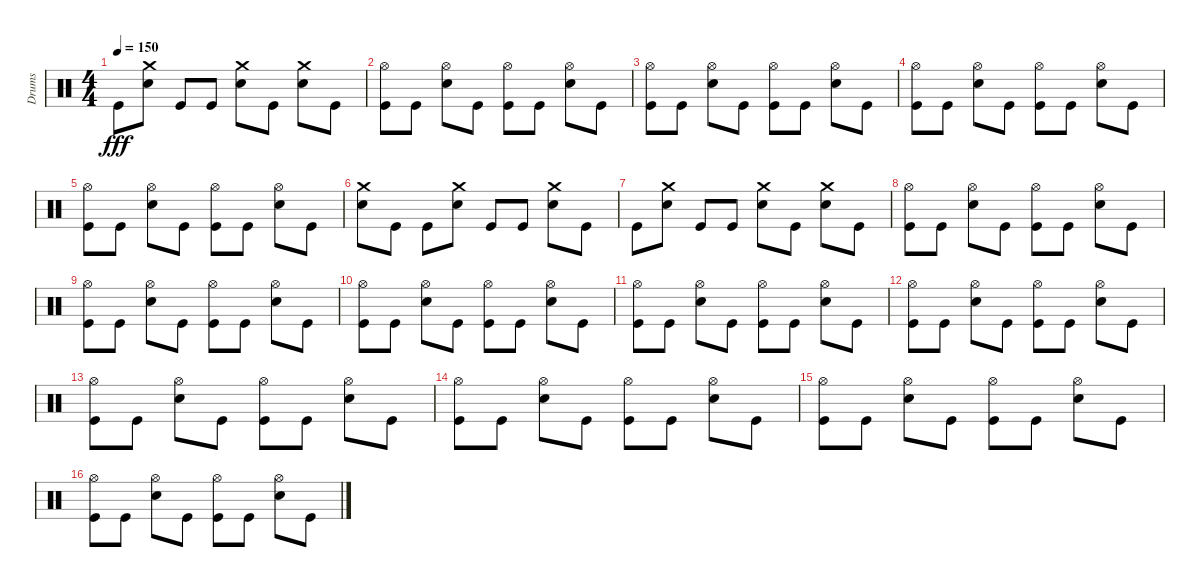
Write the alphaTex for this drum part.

\track ("Drums" "Drums") {instrument percussion}
\staff {score}
\articulation defaults
\ts (4 4)
\tempo 150
\clef neutral
\ks c "Kick (hit)".8{dy fff}
("Crash medium (hit)" "Snare (hit) 2").8 "Kick (hit)".8 "Kick (hit)".8 ("Crash medium (hit)" "Snare (hit) 2").8 "Kick (hit)".8 ("Crash medium (hit)" "Snare (hit) 2").8 "Kick (hit)".8 |
("Hi-Hat (open)" "Kick (hit)").8 "Kick (hit)".8 ("Hi-Hat (open)" "Snare (hit) 2").8 "Kick (hit)".8 ("Hi-Hat (open)" "Kick (hit)").8 "Kick (hit)".8 ("Hi-Hat (open)" "Snare (hit) 2").8 "Kick (hit)".8 |
("Hi-Hat (open)" "Kick (hit)").8 "Kick (hit)".8 ("Hi-Hat (open)" "Snare (hit) 2").8 "Kick (hit)".8 ("Hi-Hat (open)" "Kick (hit)").8 "Kick (hit)".8 ("Hi-Hat (open)" "Snare (hit) 2").8 "Kick (hit)".8 |
("Hi-Hat (open)" "Kick (hit)").8 "Kick (hit)".8 ("Hi-Hat (open)" "Snare (hit) 2").8 "Kick (hit)".8 ("Hi-Hat (open)" "Kick (hit)").8 "Kick (hit)".8 ("Hi-Hat (open)" "Snare (hit) 2").8 "Kick (hit)".8 |
("Hi-Hat (open)" "Kick (hit)").8 "Kick (hit)".8 ("Hi-Hat (open)" "Snare (hit) 2").8 "Kick (hit)".8 ("Hi-Hat (open)" "Kick (hit)").8 "Kick (hit)".8 ("Hi-Hat (open)" "Snare (hit) 2").8 "Kick (hit)".8 |
("Crash medium (hit)" "Snare (hit) 2").8 "Kick (hit)".8 "Kick (hit)".8 ("Crash medium (hit)" "Snare (hit) 2").8 "Kick (hit)".8 "Kick (hit)".8 ("Crash medium (hit)" "Snare (hit) 2").8 "Kick (hit)".8 |
"Kick (hit)".8 ("Crash medium (hit)" "Snare (hit) 2").8 "Kick (hit)".8 "Kick (hit)".8 ("Crash medium (hit)" "Snare (hit) 2").8 "Kick (hit)".8 ("Crash medium (hit)" "Snare (hit) 2").8 "Kick (hit)".8 |
("Hi-Hat (open)" "Kick (hit)").8 "Kick (hit)".8 ("Hi-Hat (open)" "Snare (hit) 2").8 "Kick (hit)".8 ("Hi-Hat (open)" "Kick (hit)").8 "Kick (hit)".8 ("Hi-Hat (open)" "Snare (hit) 2").8 "Kick (hit)".8 |
("Hi-Hat (open)" "Kick (hit)").8 "Kick (hit)".8 ("Hi-Hat (open)" "Snare (hit) 2").8 "Kick (hit)".8 ("Hi-Hat (open)" "Kick (hit)").8 "Kick (hit)".8 ("Hi-Hat (open)" "Snare (hit) 2").8 "Kick (hit)".8 |
("Hi-Hat (open)" "Kick (hit)").8 "Kick (hit)".8 ("Hi-Hat (open)" "Snare (hit) 2").8 "Kick (hit)".8 ("Hi-Hat (open)" "Kick (hit)").8 "Kick (hit)".8 ("Hi-Hat (open)" "Snare (hit) 2").8 "Kick (hit)".8 |
("Hi-Hat (open)" "Kick (hit)").8 "Kick (hit)".8 ("Hi-Hat (open)" "Snare (hit) 2").8 "Kick (hit)".8 ("Hi-Hat (open)" "Kick (hit)").8 "Kick (hit)".8 ("Hi-Hat (open)" "Snare (hit) 2").8 "Kick (hit)".8 |
("Hi-Hat (open)" "Kick (hit)").8 "Kick (hit)".8 ("Hi-Hat (open)" "Snare (hit) 2").8 "Kick (hit)".8 ("Hi-Hat (open)" "Kick (hit)").8 "Kick (hit)".8 ("Hi-Hat (open)" "Snare (hit) 2").8 "Kick (hit)".8 |
("Hi-Hat (open)" "Kick (hit)").8 "Kick (hit)".8 ("Hi-Hat (open)" "Snare (hit) 2").8 "Kick (hit)".8 ("Hi-Hat (open)" "Kick (hit)").8 "Kick (hit)".8 ("Hi-Hat (open)" "Snare (hit) 2").8 "Kick (hit)".8 |
("Hi-Hat (open)" "Kick (hit)").8 "Kick (hit)".8 ("Hi-Hat (open)" "Snare (hit) 2").8 "Kick (hit)".8 ("Hi-Hat (open)" "Kick (hit)").8 "Kick (hit)".8 ("Hi-Hat (open)" "Snare (hit) 2").8 "Kick (hit)".8 |
("Hi-Hat (open)" "Kick (hit)").8 "Kick (hit)".8 ("Hi-Hat (open)" "Snare (hit) 2").8 "Kick (hit)".8 ("Hi-Hat (open)" "Kick (hit)").8 "Kick (hit)".8 ("Hi-Hat (open)" "Snare (hit) 2").8 "Kick (hit)".8 |
("Hi-Hat (open)" "Kick (hit)").8 "Kick (hit)".8 ("Hi-Hat (open)" "Snare (hit) 2").8 "Kick (hit)".8 ("Hi-Hat (open)" "Kick (hit)").8 "Kick (hit)".8 ("Hi-Hat (open)" "Snare (hit) 2").8 "Kick (hit)".8
